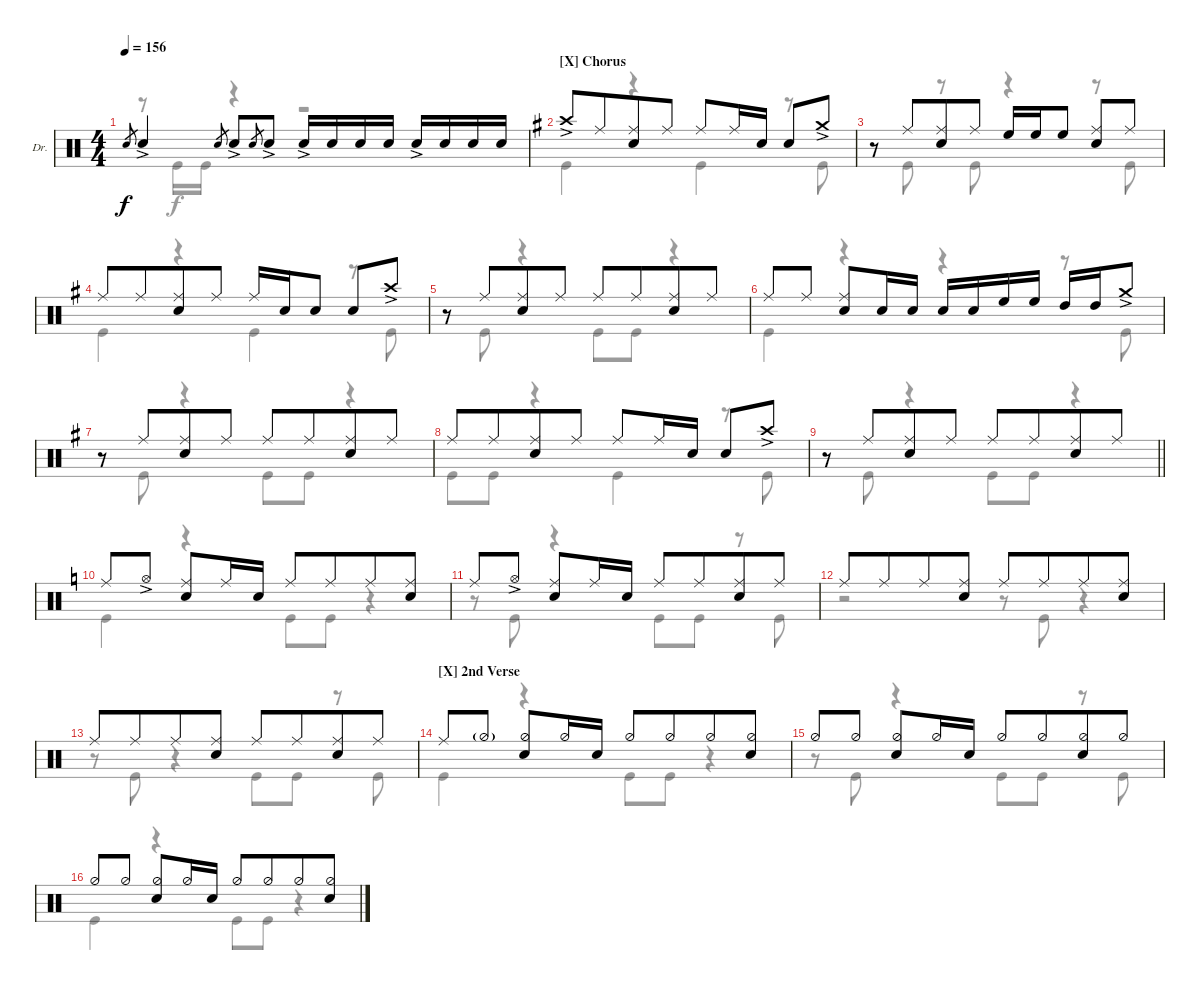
\defaultSystemsLayout 4
\bracketExtendMode groupsimilarinstruments
\firstSystemTrackNameOrientation horizontal
\otherSystemsTrackNameOrientation horizontal
\track ("Drums" "Dr.") {instrument percussion}
\staff {score}
\articulation defaults
\voice
\ts (4 4)
\tempo 156
\clef neutral
\scale
0.421905
\ks c "Snare (hit) 2".8{gr dy f} "Snare (hit) 2"{ac}.4 "Snare (hit) 2".8{gr} "Snare (hit) 2"{ac}.8 "Snare (hit) 2".8{gr} "Snare (hit) 2"{ac}.8 "Snare (hit) 2"{ac}.16 "Snare (hit) 2".16 "Snare (hit) 2".16 "Snare (hit) 2".16 "Snare (hit) 2"{ac}.16 "Snare (hit) 2".16 "Snare (hit) 2".16 "Snare (hit) 2".16
|
\section ("X" "Chorus")
\ks g "Crash high (hit)"{ac}.8 "Ride (middle)".8{beam merge}
("Ride (middle)" "Snare (hit) 2").8 "Ride (middle)".8 "Ride (middle)".8 "Ride (middle)".16 "Snare (hit) 2".16 "Snare (hit) 2".8 "Crash medium (hit)"{ac}.8 |
r.8 "Ride (middle)".8{beam merge} ("Ride (middle)" "Snare (hit) 2").8 "Ride (middle)".8 "High Floor Tom (hit)".16 "High Floor Tom (hit)".16 "High Floor Tom (hit)".8 ("Snare (hit) 2" "Ride (middle)").8 "Ride (middle)".8 |
"Ride (middle)".8 "Ride (middle)".8{beam merge} ("Ride (middle)" "Snare (hit) 2").8 "Ride (middle)".8 "Ride (middle)".16 "Snare (hit) 2".16 "Snare (hit) 2".8 "Snare (hit) 2".8 "Crash high (hit)"{ac}.8 |
r.8 "Ride (middle)".8{beam merge} ("Ride (middle)" "Snare (hit) 2").8 "Ride (middle)".8 "Ride (middle)".8 "Ride (middle)".8{beam merge} ("Ride (middle)" "Snare (hit) 2").8 "Ride (middle)".8 |
"Ride (middle)".8 "Ride (middle)".8 ("Ride (middle)" "Snare (hit) 2").8 "Snare (hit) 2".16 "Snare (hit) 2".16 "Snare (hit) 2".16 "Snare (hit) 2".16 "High Floor Tom (hit)".16 "High Floor Tom (hit)".16 "High Tom (hit)".16 "High Tom (hit)".16 "Crash medium (hit)"{ac}.8 |
r.8 "Ride (middle)".8{beam merge} ("Ride (middle)" "Snare (hit) 2").8 "Ride (middle)".8 "Ride (middle)".8 "Ride (middle)".8{beam merge} ("Ride (middle)" "Snare (hit) 2").8 "Ride (middle)".8 |
"Ride (middle)".8 "Ride (middle)".8{beam merge} ("Ride (middle)" "Snare (hit) 2").8 "Ride (middle)".8 "Ride (middle)".8 "Ride (middle)".16 "Snare (hit) 2".16 "Snare (hit) 2".8 "Crash high (hit)"{ac}.8 |
\barLineRight lightlight
r.8 "Ride (middle)".8{beam merge} ("Ride (middle)" "Snare (hit) 2").8 "Ride (middle)".8 "Ride (middle)".8 "Ride (middle)".8{beam merge} ("Ride (middle)" "Snare (hit) 2").8 "Ride (middle)".8 |
\ks c "Ride (middle)".8 "Hi-Hat (open)"{ac}.8
("Ride (middle)" "Snare (hit) 2").8 "Ride (middle)".16 "Snare (hit) 2".16 "Ride (middle)".8 "Ride (middle)".8{beam merge} "Ride (middle)".8 ("Ride (middle)" "Snare (hit) 2").8 |
"Ride (middle)".8 "Hi-Hat (open)"{ac}.8 ("Ride (middle)" "Snare (hit) 2").8 "Ride (middle)".16 "Snare (hit) 2".16 "Ride (middle)".8 "Ride (middle)".8{beam merge} ("Ride (middle)" "Snare (hit) 2").8 "Ride (middle)".8 |
"Ride (middle)".8 "Ride (middle)".8{beam merge} "Ride (middle)".8 ("Ride (middle)" "Snare (hit) 2").8 "Ride (middle)".8 "Ride (middle)".8{beam merge} "Ride (middle)".8 ("Ride (middle)" "Snare (hit) 2").8 |
"Ride (middle)".8 "Ride (middle)".8{beam merge} "Ride (middle)".8 ("Ride (middle)" "Snare (hit) 2").8 "Ride (middle)".8 "Ride (middle)".8{beam merge} ("Ride (middle)" "Snare (hit) 2").8 "Ride (middle)".8 |
\section ("X" "2nd Verse")
"Ride (middle)".8 "Hi-Hat (half)"{g}.8 ("Hi-Hat (half)" "Snare (hit) 2").8 "Hi-Hat (half)".16 "Snare (hit) 2".16 "Hi-Hat (half)".8 "Hi-Hat (half)".8{beam merge} "Hi-Hat (half)".8 ("Hi-Hat (half)" "Snare (hit) 2").8 |
"Hi-Hat (half)".8 "Hi-Hat (half)".8 ("Hi-Hat (half)" "Snare (hit) 2").8 "Hi-Hat (half)".16 "Snare (hit) 2".16 "Hi-Hat (half)".8 "Hi-Hat (half)".8{beam merge} ("Hi-Hat (half)" "Snare (hit) 2").8 "Hi-Hat (half)".8 |
"Hi-Hat (half)".8 "Hi-Hat (half)".8 ("Hi-Hat (half)" "Snare (hit) 2").8 "Hi-Hat (half)".16 "Snare (hit) 2".16 "Hi-Hat (half)".8 "Hi-Hat (half)".8{beam merge} "Hi-Hat (half)".8 ("Hi-Hat (half)" "Snare (hit) 2").8
\voice
\clef neutral
\ottava regular
\simile none
\scale
0.421905
\ks c
r.8{dy f} "Kick (hit)".16 "Kick (hit)".16 r.4 r.2 |
\ks g "Kick (hit)".4
r.4 "Kick (hit)".4 r.8 "Kick (hit)".8 |
r.8 "Kick (hit)".8 r.8 "Kick (hit)".8 r.4 r.8 "Kick (hit)".8 |
"Kick (hit)".4 r.4 "Kick (hit)".4 r.8 "Kick (hit)".8 |
r.8 "Kick (hit)".8 r.4 "Kick (hit)".8 "Kick (hit)".8 r.4 |
"Kick (hit)".4 r.4 r.4 r.8 "Kick (hit)".8 |
r.8 "Kick (hit)".8 r.4 "Kick (hit)".8 "Kick (hit)".8 r.4 |
"Kick (hit)".8 "Kick (hit)".8 r.4 "Kick (hit)".4 r.8 "Kick (hit)".8 |
\barLineRight lightlight
r.8 "Kick (hit)".8 r.4 "Kick (hit)".8 "Kick (hit)".8 r.4 |
\ks c "Kick (hit)".4
r.4 "Kick (hit)".8 "Kick (hit)".8 r.4 |
r.8 "Kick (hit)".8 r.4 "Kick (hit)".8 "Kick (hit)".8 r.8 "Kick (hit)".8 |
r.2 r.8 "Kick (hit)".8 r.4 |
r.8 "Kick (hit)".8 r.4 "Kick (hit)".8 "Kick (hit)".8 r.8 "Kick (hit)".8 |
"Kick (hit)".4 r.4 "Kick (hit)".8 "Kick (hit)".8 r.4 |
r.8 "Kick (hit)".8 r.4 "Kick (hit)".8 "Kick (hit)".8 r.8 "Kick (hit)".8 |
"Kick (hit)".4 r.4 "Kick (hit)".8 "Kick (hit)".8 r.4
